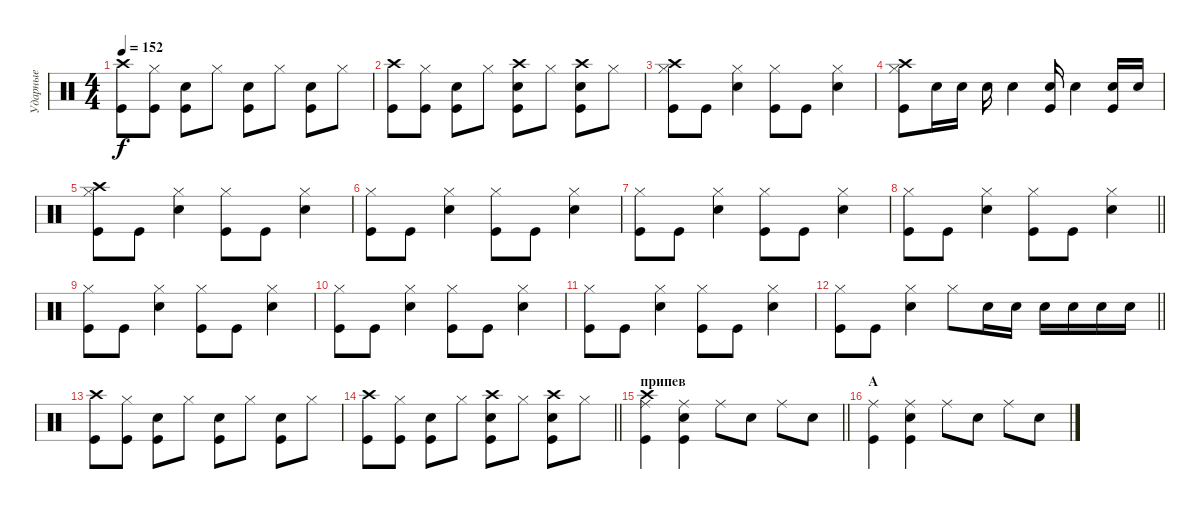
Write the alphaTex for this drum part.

\track ("Ударные" "Ударные") {instrument percussion}
\staff {score}
\articulation defaults
\ts (4 4)
\tempo 152
\clef neutral
\ks c
("Crash high (hit)" "Kick (hit)").8{dy f} ("Hi-Hat (closed)" "Kick (hit)").8 ("Snare (hit) 2" "Kick (hit)").8 "Hi-Hat (closed)".8 ("Snare (hit) 2" "Kick (hit)").8 "Hi-Hat (closed)".8 ("Snare (hit) 2" "Kick (hit)").8 "Hi-Hat (closed)".8 |
("Crash high (hit)" "Kick (hit)").8 ("Hi-Hat (closed)" "Kick (hit)").8 ("Snare (hit) 2" "Kick (hit)").8 "Hi-Hat (closed)".8 ("Snare (hit) 2" "Kick (hit)" "Crash high (hit)").8 "Hi-Hat (closed)".8 ("Snare (hit) 2" "Kick (hit)" "Crash high (hit)").8 "Hi-Hat (closed)".8 |
("Hi-Hat (closed)" "Crash high (hit)" "Kick (hit)").8 "Kick (hit)".8 ("Snare (hit) 2" "Hi-Hat (closed)").4 ("Hi-Hat (closed)" "Kick (hit)").8 "Kick (hit)".8 ("Snare (hit) 2" "Hi-Hat (closed)").4 |
("Hi-Hat (closed)" "Crash high (hit)" "Kick (hit)").8 "Snare (hit) 2".16 "Snare (hit) 2".16 "Snare (hit) 2".16 "Snare (hit) 2".4 ("Snare (hit) 2" "Kick (hit)").16 "Snare (hit) 2".4 ("Snare (hit) 2" "Kick (hit)").16 "Snare (hit) 2".16 |
("Hi-Hat (closed)" "Crash high (hit)" "Kick (hit)").8 "Kick (hit)".8 ("Snare (hit) 2" "Hi-Hat (closed)").4 ("Hi-Hat (closed)" "Kick (hit)").8 "Kick (hit)".8 ("Snare (hit) 2" "Hi-Hat (closed)").4 |
("Hi-Hat (closed)" "Kick (hit)").8 "Kick (hit)".8 ("Snare (hit) 2" "Hi-Hat (closed)").4 ("Hi-Hat (closed)" "Kick (hit)").8 "Kick (hit)".8 ("Snare (hit) 2" "Hi-Hat (closed)").4 |
("Hi-Hat (closed)" "Kick (hit)").8 "Kick (hit)".8 ("Snare (hit) 2" "Hi-Hat (closed)").4 ("Hi-Hat (closed)" "Kick (hit)").8 "Kick (hit)".8 ("Snare (hit) 2" "Hi-Hat (closed)").4 |
\barLineRight lightlight
("Hi-Hat (closed)" "Kick (hit)").8 "Kick (hit)".8 ("Snare (hit) 2" "Hi-Hat (closed)").4 ("Hi-Hat (closed)" "Kick (hit)").8 "Kick (hit)".8 ("Snare (hit) 2" "Hi-Hat (closed)").4 |
("Hi-Hat (closed)" "Kick (hit)").8 "Kick (hit)".8 ("Snare (hit) 2" "Hi-Hat (closed)").4 ("Hi-Hat (closed)" "Kick (hit)").8 "Kick (hit)".8 ("Snare (hit) 2" "Hi-Hat (closed)").4 |
("Hi-Hat (closed)" "Kick (hit)").8 "Kick (hit)".8 ("Snare (hit) 2" "Hi-Hat (closed)").4 ("Hi-Hat (closed)" "Kick (hit)").8 "Kick (hit)".8 ("Snare (hit) 2" "Hi-Hat (closed)").4 |
("Hi-Hat (closed)" "Kick (hit)").8 "Kick (hit)".8 ("Snare (hit) 2" "Hi-Hat (closed)").4 ("Hi-Hat (closed)" "Kick (hit)").8 "Kick (hit)".8 ("Snare (hit) 2" "Hi-Hat (closed)").4 |
\barLineRight lightlight
("Hi-Hat (closed)" "Kick (hit)").8 "Kick (hit)".8 ("Snare (hit) 2" "Hi-Hat (closed)").4 "Hi-Hat (closed)".8 "Snare (hit) 2".16 "Snare (hit) 2".16 "Snare (hit) 2".16 "Snare (hit) 2".16 "Snare (hit) 2".16 "Snare (hit) 2".16 |
("Crash high (hit)" "Kick (hit)").8 ("Hi-Hat (closed)" "Kick (hit)").8 ("Snare (hit) 2" "Kick (hit)").8 "Hi-Hat (closed)".8 ("Snare (hit) 2" "Kick (hit)").8 "Hi-Hat (closed)".8 ("Snare (hit) 2" "Kick (hit)").8 "Hi-Hat (closed)".8 |
\barLineRight lightlight
("Crash high (hit)" "Kick (hit)").8 ("Hi-Hat (closed)" "Kick (hit)").8 ("Snare (hit) 2" "Kick (hit)").8 "Hi-Hat (closed)".8 ("Snare (hit) 2" "Kick (hit)" "Crash high (hit)").8 "Hi-Hat (closed)".8 ("Snare (hit) 2" "Kick (hit)" "Crash high (hit)").8 "Hi-Hat (closed)".8 |
\section ("" "припев")
\barLineRight lightlight
("Crash high (hit)" "Ride (middle)" "Kick (hit)").4 ("Kick (hit)" "Ride (middle)" "Snare (hit) 2").4 "Ride (middle)".8 "Snare (hit) 2".8 "Ride (middle)".8 "Snare (hit) 2".8 |
\section ("" "А")
("Ride (middle)" "Kick (hit)").4 ("Kick (hit)" "Ride (middle)" "Snare (hit) 2").4 "Ride (middle)".8 "Snare (hit) 2".8 "Ride (middle)".8 "Snare (hit) 2".8
